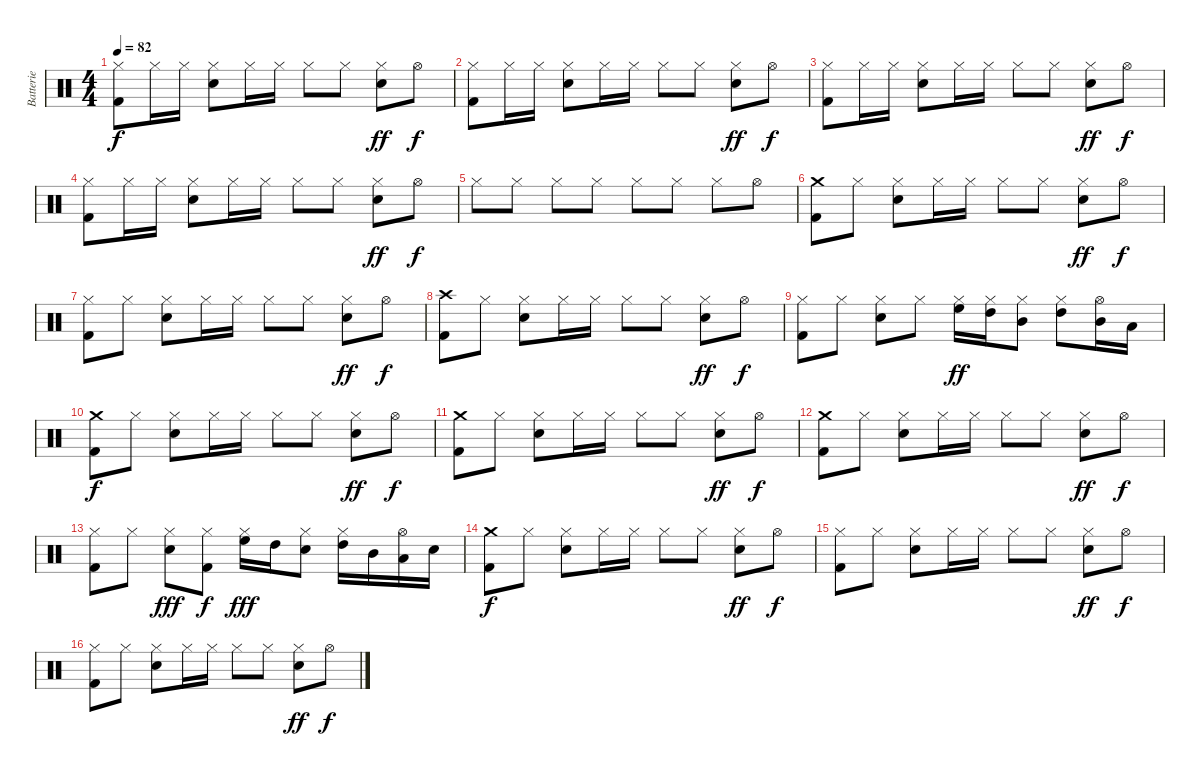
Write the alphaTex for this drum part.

\track ("Batterie" "Batterie") {instrument percussion}
\staff {score}
\articulation defaults
\ts (4 4)
\tempo 82
\clef neutral
\ks c
("Hi-Hat (closed)" "Kick (hit) 2").8{dy f} "Hi-Hat (closed)".16 "Hi-Hat (closed)".16 ("Hi-Hat (closed)" "Electric Snare (hit)").8 "Hi-Hat (closed)".16 "Hi-Hat (closed)".16 "Hi-Hat (closed)".8 "Hi-Hat (closed)".8 ("Hi-Hat (closed)" "Electric Snare (hit)").8{dy ff} "Hi-Hat (open)".8{dy f} |
("Hi-Hat (closed)" "Kick (hit) 2").8 "Hi-Hat (closed)".16 "Hi-Hat (closed)".16 ("Hi-Hat (closed)" "Electric Snare (hit)").8 "Hi-Hat (closed)".16 "Hi-Hat (closed)".16 "Hi-Hat (closed)".8 "Hi-Hat (closed)".8 ("Hi-Hat (closed)" "Electric Snare (hit)").8{dy ff} "Hi-Hat (open)".8{dy f} |
("Hi-Hat (closed)" "Kick (hit) 2").8 "Hi-Hat (closed)".16 "Hi-Hat (closed)".16 ("Hi-Hat (closed)" "Electric Snare (hit)").8 "Hi-Hat (closed)".16 "Hi-Hat (closed)".16 "Hi-Hat (closed)".8 "Hi-Hat (closed)".8 ("Hi-Hat (closed)" "Electric Snare (hit)").8{dy ff} "Hi-Hat (open)".8{dy f} |
("Hi-Hat (closed)" "Kick (hit) 2").8 "Hi-Hat (closed)".16 "Hi-Hat (closed)".16 ("Hi-Hat (closed)" "Electric Snare (hit)").8 "Hi-Hat (closed)".16 "Hi-Hat (closed)".16 "Hi-Hat (closed)".8 "Hi-Hat (closed)".8 ("Hi-Hat (closed)" "Electric Snare (hit)").8{dy ff} "Hi-Hat (open)".8{dy f} |
"Hi-Hat (closed)".8 "Hi-Hat (closed)".8 "Hi-Hat (closed)".8 "Hi-Hat (closed)".8 "Hi-Hat (closed)".8 "Hi-Hat (closed)".8 "Hi-Hat (closed)".8 "Hi-Hat (open)".8 |
("Crash medium (hit)" "Kick (hit) 2").8 "Hi-Hat (closed)".8 ("Hi-Hat (closed)" "Electric Snare (hit)").8 "Hi-Hat (closed)".16 "Hi-Hat (closed)".16 "Hi-Hat (closed)".8 "Hi-Hat (closed)".8 ("Hi-Hat (closed)" "Electric Snare (hit)").8{dy ff} "Hi-Hat (open)".8{dy f} |
("Hi-Hat (closed)" "Kick (hit) 2").8 "Hi-Hat (closed)".8 ("Hi-Hat (closed)" "Electric Snare (hit)").8 "Hi-Hat (closed)".16 "Hi-Hat (closed)".16 "Hi-Hat (closed)".8 "Hi-Hat (closed)".8 ("Hi-Hat (closed)" "Electric Snare (hit)").8{dy ff} "Hi-Hat (open)".8{dy f} |
("Crash high (hit)" "Kick (hit) 2").8 "Hi-Hat (closed)".8 ("Hi-Hat (closed)" "Electric Snare (hit)").8 "Hi-Hat (closed)".16 "Hi-Hat (closed)".16 "Hi-Hat (closed)".8 "Hi-Hat (closed)".8 ("Hi-Hat (closed)" "Electric Snare (hit)").8{dy ff} "Hi-Hat (open)".8{dy f} |
("Hi-Hat (closed)" "Kick (hit) 2").8 "Hi-Hat (closed)".8 ("Hi-Hat (closed)" "Electric Snare (hit)").8 "Hi-Hat (closed)".8 ("Hi-Hat (closed)" "High Floor Tom (hit)").16{dy ff} ("Hi-Hat (closed)" "High Tom (hit)").16 ("Hi-Hat (closed)" "Mid Tom (hit)").8 ("Hi-Hat (closed)" "High Tom (hit)").8 ("Hi-Hat (open)" "Mid Tom (hit)").16 "Low Tom (hit)".16 |
("Crash medium (hit)" "Kick (hit) 2").8{dy f} "Hi-Hat (closed)".8 ("Hi-Hat (closed)" "Electric Snare (hit)").8 "Hi-Hat (closed)".16 "Hi-Hat (closed)".16 "Hi-Hat (closed)".8 "Hi-Hat (closed)".8 ("Hi-Hat (closed)" "Electric Snare (hit)").8{dy ff} "Hi-Hat (open)".8{dy f} |
("Crash medium (hit)" "Kick (hit) 2").8 "Hi-Hat (closed)".8 ("Hi-Hat (closed)" "Electric Snare (hit)").8 "Hi-Hat (closed)".16 "Hi-Hat (closed)".16 "Hi-Hat (closed)".8 "Hi-Hat (closed)".8 ("Hi-Hat (closed)" "Electric Snare (hit)").8{dy ff} "Hi-Hat (open)".8{dy f} |
("Crash medium (hit)" "Kick (hit) 2").8 "Hi-Hat (closed)".8 ("Hi-Hat (closed)" "Electric Snare (hit)").8 "Hi-Hat (closed)".16 "Hi-Hat (closed)".16 "Hi-Hat (closed)".8 "Hi-Hat (closed)".8 ("Hi-Hat (closed)" "Electric Snare (hit)").8{dy ff} "Hi-Hat (open)".8{dy f} |
("Hi-Hat (closed)" "Kick (hit) 2").8 "Hi-Hat (closed)".8 ("Hi-Hat (closed)" "Electric Snare (hit)").8{dy fff} ("Hi-Hat (closed)" "Kick (hit) 2").8{dy f} ("Hi-Hat (closed)" "High Floor Tom (hit)").16{dy fff} "High Tom (hit)".16 ("Hi-Hat (closed)" "Electric Snare (hit)").8 ("Hi-Hat (closed)" "High Tom (hit)").16 "Mid Tom (hit)".16 ("Hi-Hat (open)" "Low Tom (hit)").16 "Electric Snare (hit)".16 |
("Crash medium (hit)" "Kick (hit) 2").8{dy f} "Hi-Hat (closed)".8 ("Hi-Hat (closed)" "Electric Snare (hit)").8 "Hi-Hat (closed)".16 "Hi-Hat (closed)".16 "Hi-Hat (closed)".8 "Hi-Hat (closed)".8 ("Hi-Hat (closed)" "Electric Snare (hit)").8{dy ff} "Hi-Hat (open)".8{dy f} |
("Hi-Hat (closed)" "Kick (hit) 2").8 "Hi-Hat (closed)".8 ("Hi-Hat (closed)" "Electric Snare (hit)").8 "Hi-Hat (closed)".16 "Hi-Hat (closed)".16 "Hi-Hat (closed)".8 "Hi-Hat (closed)".8 ("Hi-Hat (closed)" "Electric Snare (hit)").8{dy ff} "Hi-Hat (open)".8{dy f} |
("Hi-Hat (closed)" "Kick (hit) 2").8 "Hi-Hat (closed)".8 ("Hi-Hat (closed)" "Electric Snare (hit)").8 "Hi-Hat (closed)".16 "Hi-Hat (closed)".16 "Hi-Hat (closed)".8 "Hi-Hat (closed)".8 ("Hi-Hat (closed)" "Electric Snare (hit)").8{dy ff} "Hi-Hat (open)".8{dy f}
